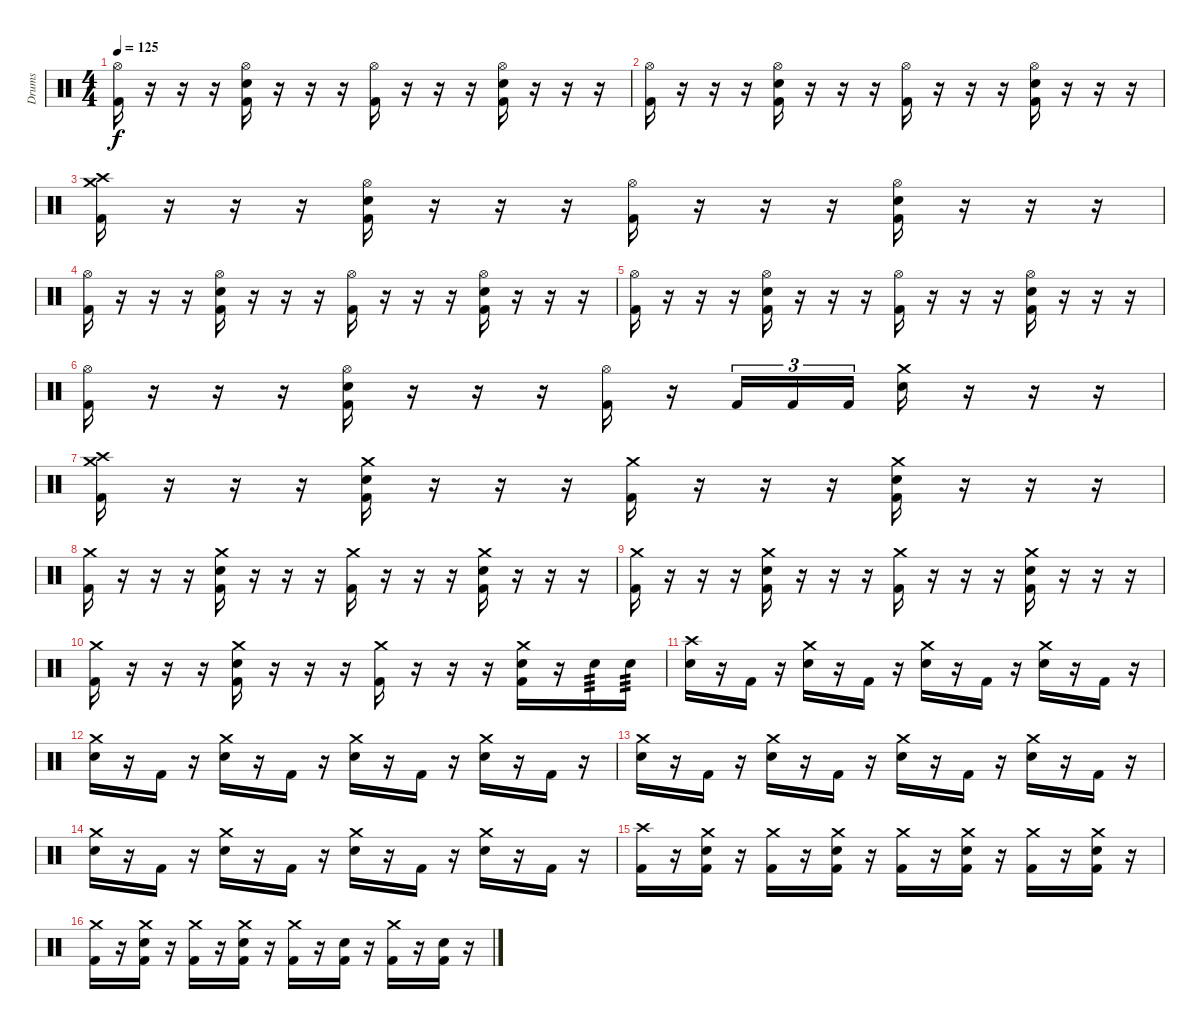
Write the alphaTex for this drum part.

\track ("Drums" "Drums") {instrument percussion}
\staff {score}
\articulation defaults
\ts (4 4)
\tempo 125
\clef neutral
\ks c
("Hi-Hat (open)" "Kick (hit) 2").16{dy f} r.16 r.16 r.16 ("Hi-Hat (open)" "Electric Snare (hit)" "Kick (hit) 2").16 r.16 r.16 r.16 ("Hi-Hat (open)" "Kick (hit) 2").16 r.16 r.16 r.16 ("Hi-Hat (open)" "Electric Snare (hit)" "Kick (hit) 2").16 r.16 r.16 r.16 |
("Hi-Hat (open)" "Kick (hit) 2").16 r.16 r.16 r.16 ("Hi-Hat (open)" "Electric Snare (hit)" "Kick (hit) 2").16 r.16 r.16 r.16 ("Hi-Hat (open)" "Kick (hit) 2").16 r.16 r.16 r.16 ("Hi-Hat (open)" "Electric Snare (hit)" "Kick (hit) 2").16 r.16 r.16 r.16 |
("Crash high (hit)" "Crash medium (hit)" "Kick (hit) 2").16 r.16 r.16 r.16 ("Hi-Hat (open)" "Electric Snare (hit)" "Kick (hit) 2").16 r.16 r.16 r.16 ("Hi-Hat (open)" "Kick (hit) 2").16 r.16 r.16 r.16 ("Hi-Hat (open)" "Electric Snare (hit)" "Kick (hit) 2").16 r.16 r.16 r.16 |
("Hi-Hat (open)" "Kick (hit) 2").16 r.16 r.16 r.16 ("Hi-Hat (open)" "Electric Snare (hit)" "Kick (hit) 2").16 r.16 r.16 r.16 ("Hi-Hat (open)" "Kick (hit) 2").16 r.16 r.16 r.16 ("Hi-Hat (open)" "Electric Snare (hit)" "Kick (hit) 2").16 r.16 r.16 r.16 |
("Hi-Hat (open)" "Kick (hit) 2").16 r.16 r.16 r.16 ("Hi-Hat (open)" "Electric Snare (hit)" "Kick (hit) 2").16 r.16 r.16 r.16 ("Hi-Hat (open)" "Kick (hit) 2").16 r.16 r.16 r.16 ("Hi-Hat (open)" "Electric Snare (hit)" "Kick (hit) 2").16 r.16 r.16 r.16 |
("Hi-Hat (open)" "Kick (hit) 2").16 r.16 r.16 r.16 ("Hi-Hat (open)" "Electric Snare (hit)" "Kick (hit) 2").16 r.16 r.16 r.16 ("Hi-Hat (open)" "Kick (hit) 2").16 r.16 "Kick (hit) 2".16{tu (3 2)} "Kick (hit) 2".16{tu (3 2)} "Kick (hit) 2".16{tu (3 2)} ("Crash medium (hit)" "Electric Snare (hit)").16 r.16 r.16 r.16 |
("Crash medium (hit)" "Crash high (hit)" "Kick (hit) 2").16 r.16 r.16 r.16 ("Crash medium (hit)" "Electric Snare (hit)" "Kick (hit) 2").16 r.16 r.16 r.16 ("Crash medium (hit)" "Kick (hit) 2").16 r.16 r.16 r.16 ("Crash medium (hit)" "Electric Snare (hit)" "Kick (hit) 2").16 r.16 r.16 r.16 |
("Crash medium (hit)" "Kick (hit) 2").16 r.16 r.16 r.16 ("Crash medium (hit)" "Electric Snare (hit)" "Kick (hit) 2").16 r.16 r.16 r.16 ("Crash medium (hit)" "Kick (hit) 2").16 r.16 r.16 r.16 ("Crash medium (hit)" "Electric Snare (hit)" "Kick (hit) 2").16 r.16 r.16 r.16 |
("Crash medium (hit)" "Kick (hit) 2").16 r.16 r.16 r.16 ("Crash medium (hit)" "Electric Snare (hit)" "Kick (hit) 2").16 r.16 r.16 r.16 ("Crash medium (hit)" "Kick (hit) 2").16 r.16 r.16 r.16 ("Crash medium (hit)" "Electric Snare (hit)" "Kick (hit) 2").16 r.16 r.16 r.16 |
("Crash medium (hit)" "Kick (hit) 2").16 r.16 r.16 r.16 ("Crash medium (hit)" "Electric Snare (hit)" "Kick (hit) 2").16 r.16 r.16 r.16 ("Crash medium (hit)" "Kick (hit) 2").16 r.16 r.16 r.16 ("Crash medium (hit)" "Electric Snare (hit)" "Kick (hit) 2").16 r.16 "Electric Snare (hit)".16{tp 3} "Electric Snare (hit)".16{tp 3} |
("Crash high (hit)" "Electric Snare (hit)").16 r.16 "Kick (hit) 2".16 r.16 ("Crash medium (hit)" "Electric Snare (hit)").16 r.16 "Kick (hit) 2".16 r.16 ("Crash medium (hit)" "Electric Snare (hit)").16 r.16 "Kick (hit) 2".16 r.16 ("Crash medium (hit)" "Electric Snare (hit)").16 r.16 "Kick (hit) 2".16 r.16 |
("Crash medium (hit)" "Electric Snare (hit)").16 r.16 "Kick (hit) 2".16 r.16 ("Crash medium (hit)" "Electric Snare (hit)").16 r.16 "Kick (hit) 2".16 r.16 ("Crash medium (hit)" "Electric Snare (hit)").16 r.16 "Kick (hit) 2".16 r.16 ("Crash medium (hit)" "Electric Snare (hit)").16 r.16 "Kick (hit) 2".16 r.16 |
("Crash medium (hit)" "Electric Snare (hit)").16 r.16 "Kick (hit) 2".16 r.16 ("Crash medium (hit)" "Electric Snare (hit)").16 r.16 "Kick (hit) 2".16 r.16 ("Crash medium (hit)" "Electric Snare (hit)").16 r.16 "Kick (hit) 2".16 r.16 ("Crash medium (hit)" "Electric Snare (hit)").16 r.16 "Kick (hit) 2".16 r.16 |
("Crash medium (hit)" "Electric Snare (hit)").16 r.16 "Kick (hit) 2".16 r.16 ("Crash medium (hit)" "Electric Snare (hit)").16 r.16 "Kick (hit) 2".16 r.16 ("Crash medium (hit)" "Electric Snare (hit)").16 r.16 "Kick (hit) 2".16 r.16 ("Crash medium (hit)" "Electric Snare (hit)").16 r.16 "Kick (hit) 2".16 r.16 |
("Crash high (hit)" "Kick (hit) 2").16 r.16 ("Crash medium (hit)" "Electric Snare (hit)" "Kick (hit) 2").16 r.16 ("Crash medium (hit)" "Kick (hit) 2").16 r.16 ("Crash medium (hit)" "Electric Snare (hit)" "Kick (hit) 2").16 r.16 ("Crash medium (hit)" "Kick (hit) 2").16 r.16 ("Crash medium (hit)" "Electric Snare (hit)" "Kick (hit) 2").16 r.16 ("Crash medium (hit)" "Kick (hit) 2").16 r.16 ("Crash medium (hit)" "Electric Snare (hit)" "Kick (hit) 2").16 r.16 |
("Crash medium (hit)" "Kick (hit) 2").16 r.16 ("Crash medium (hit)" "Electric Snare (hit)" "Kick (hit) 2").16 r.16 ("Crash medium (hit)" "Kick (hit) 2").16 r.16 ("Crash medium (hit)" "Electric Snare (hit)" "Kick (hit) 2").16 r.16 ("Crash medium (hit)" "Kick (hit) 2").16 r.16 ("Electric Snare (hit)" "Kick (hit) 2").16 r.16 ("Crash medium (hit)" "Kick (hit) 2").16 r.16 ("Electric Snare (hit)" "Kick (hit) 2").16 r.16
